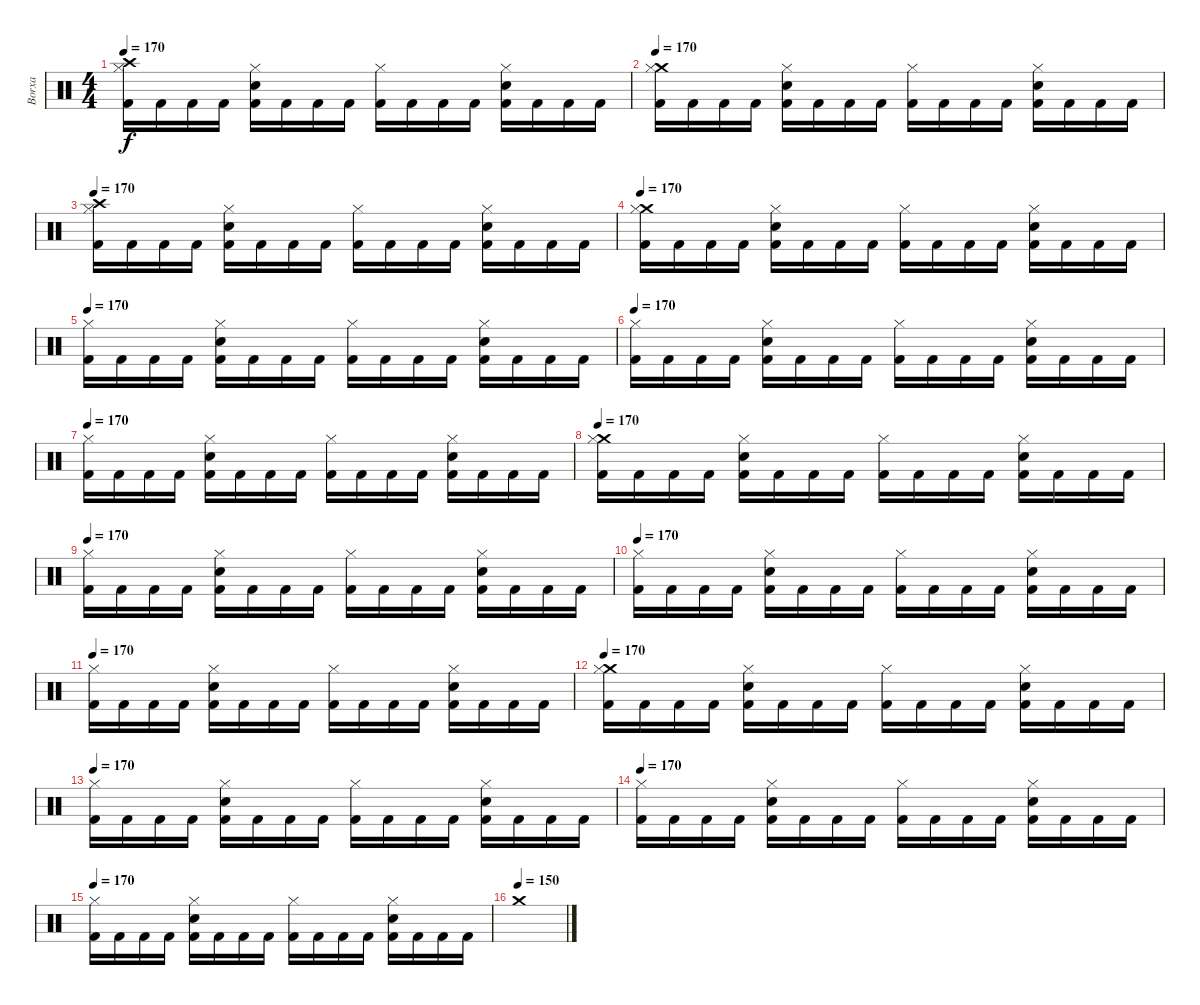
\track ("Borxa" "Borxa") {instrument percussion}
\staff {score}
\articulation defaults
\ts (4 4)
\tempo 170
\clef neutral
\ks c
("Crash high (hit)" "Hi-Hat (closed)" "Kick (hit) 2").16{dy f volume 13} "Kick (hit) 2".16 "Kick (hit) 2".16 "Kick (hit) 2".16 ("Snare (hit) 2" "Hi-Hat (closed)" "Kick (hit) 2").16 "Kick (hit) 2".16 "Kick (hit) 2".16 "Kick (hit) 2".16 ("Hi-Hat (closed)" "Kick (hit) 2").16 "Kick (hit) 2".16 "Kick (hit) 2".16 "Kick (hit) 2".16 ("Snare (hit) 2" "Hi-Hat (closed)" "Kick (hit) 2").16 "Kick (hit) 2".16 "Kick (hit) 2".16 "Kick (hit) 2".16 |
\tempo 170
("Crash medium (hit)" "Hi-Hat (closed)" "Kick (hit) 2").16{volume 13} "Kick (hit) 2".16 "Kick (hit) 2".16 "Kick (hit) 2".16 ("Snare (hit) 2" "Hi-Hat (closed)" "Kick (hit) 2").16 "Kick (hit) 2".16 "Kick (hit) 2".16 "Kick (hit) 2".16 ("Hi-Hat (closed)" "Kick (hit) 2").16 "Kick (hit) 2".16 "Kick (hit) 2".16 "Kick (hit) 2".16 ("Snare (hit) 2" "Hi-Hat (closed)" "Kick (hit) 2").16 "Kick (hit) 2".16 "Kick (hit) 2".16 "Kick (hit) 2".16 |
\tempo 170
("Crash high (hit)" "Hi-Hat (closed)" "Kick (hit) 2").16{volume 13} "Kick (hit) 2".16 "Kick (hit) 2".16 "Kick (hit) 2".16 ("Snare (hit) 2" "Hi-Hat (closed)" "Kick (hit) 2").16 "Kick (hit) 2".16 "Kick (hit) 2".16 "Kick (hit) 2".16 ("Hi-Hat (closed)" "Kick (hit) 2").16 "Kick (hit) 2".16 "Kick (hit) 2".16 "Kick (hit) 2".16 ("Snare (hit) 2" "Hi-Hat (closed)" "Kick (hit) 2").16 "Kick (hit) 2".16 "Kick (hit) 2".16 "Kick (hit) 2".16 |
\tempo 170
("Crash medium (hit)" "Hi-Hat (closed)" "Kick (hit) 2").16{volume 13} "Kick (hit) 2".16 "Kick (hit) 2".16 "Kick (hit) 2".16 ("Snare (hit) 2" "Hi-Hat (closed)" "Kick (hit) 2").16 "Kick (hit) 2".16 "Kick (hit) 2".16 "Kick (hit) 2".16 ("Hi-Hat (closed)" "Kick (hit) 2").16 "Kick (hit) 2".16 "Kick (hit) 2".16 "Kick (hit) 2".16 ("Snare (hit) 2" "Hi-Hat (closed)" "Kick (hit) 2").16 "Kick (hit) 2".16 "Kick (hit) 2".16 "Kick (hit) 2".16 |
\tempo 170
("Hi-Hat (closed)" "Kick (hit) 2").16{volume 13} "Kick (hit) 2".16 "Kick (hit) 2".16 "Kick (hit) 2".16 ("Snare (hit) 2" "Hi-Hat (closed)" "Kick (hit) 2").16 "Kick (hit) 2".16 "Kick (hit) 2".16 "Kick (hit) 2".16 ("Hi-Hat (closed)" "Kick (hit) 2").16 "Kick (hit) 2".16 "Kick (hit) 2".16 "Kick (hit) 2".16 ("Snare (hit) 2" "Hi-Hat (closed)" "Kick (hit) 2").16 "Kick (hit) 2".16 "Kick (hit) 2".16 "Kick (hit) 2".16 |
\tempo 170
("Hi-Hat (closed)" "Kick (hit) 2").16{volume 13} "Kick (hit) 2".16 "Kick (hit) 2".16 "Kick (hit) 2".16 ("Snare (hit) 2" "Hi-Hat (closed)" "Kick (hit) 2").16 "Kick (hit) 2".16 "Kick (hit) 2".16 "Kick (hit) 2".16 ("Hi-Hat (closed)" "Kick (hit) 2").16 "Kick (hit) 2".16 "Kick (hit) 2".16 "Kick (hit) 2".16 ("Snare (hit) 2" "Hi-Hat (closed)" "Kick (hit) 2").16 "Kick (hit) 2".16 "Kick (hit) 2".16 "Kick (hit) 2".16 |
\tempo 170
("Hi-Hat (closed)" "Kick (hit) 2").16{volume 13} "Kick (hit) 2".16 "Kick (hit) 2".16 "Kick (hit) 2".16 ("Snare (hit) 2" "Hi-Hat (closed)" "Kick (hit) 2").16 "Kick (hit) 2".16 "Kick (hit) 2".16 "Kick (hit) 2".16 ("Hi-Hat (closed)" "Kick (hit) 2").16 "Kick (hit) 2".16 "Kick (hit) 2".16 "Kick (hit) 2".16 ("Snare (hit) 2" "Hi-Hat (closed)" "Kick (hit) 2").16 "Kick (hit) 2".16 "Kick (hit) 2".16 "Kick (hit) 2".16 |
\tempo 170
("Crash medium (hit)" "Hi-Hat (closed)" "Kick (hit) 2").16{volume 13} "Kick (hit) 2".16 "Kick (hit) 2".16 "Kick (hit) 2".16 ("Snare (hit) 2" "Hi-Hat (closed)" "Kick (hit) 2").16 "Kick (hit) 2".16 "Kick (hit) 2".16 "Kick (hit) 2".16 ("Hi-Hat (closed)" "Kick (hit) 2").16 "Kick (hit) 2".16 "Kick (hit) 2".16 "Kick (hit) 2".16 ("Snare (hit) 2" "Hi-Hat (closed)" "Kick (hit) 2").16 "Kick (hit) 2".16 "Kick (hit) 2".16 "Kick (hit) 2".16 |
\tempo 170
("Hi-Hat (closed)" "Kick (hit) 2").16{volume 13} "Kick (hit) 2".16 "Kick (hit) 2".16 "Kick (hit) 2".16 ("Snare (hit) 2" "Hi-Hat (closed)" "Kick (hit) 2").16 "Kick (hit) 2".16 "Kick (hit) 2".16 "Kick (hit) 2".16 ("Hi-Hat (closed)" "Kick (hit) 2").16 "Kick (hit) 2".16 "Kick (hit) 2".16 "Kick (hit) 2".16 ("Snare (hit) 2" "Hi-Hat (closed)" "Kick (hit) 2").16 "Kick (hit) 2".16 "Kick (hit) 2".16 "Kick (hit) 2".16 |
\tempo 170
("Hi-Hat (closed)" "Kick (hit) 2").16{volume 13} "Kick (hit) 2".16 "Kick (hit) 2".16 "Kick (hit) 2".16 ("Snare (hit) 2" "Hi-Hat (closed)" "Kick (hit) 2").16 "Kick (hit) 2".16 "Kick (hit) 2".16 "Kick (hit) 2".16 ("Hi-Hat (closed)" "Kick (hit) 2").16 "Kick (hit) 2".16 "Kick (hit) 2".16 "Kick (hit) 2".16 ("Snare (hit) 2" "Hi-Hat (closed)" "Kick (hit) 2").16 "Kick (hit) 2".16 "Kick (hit) 2".16 "Kick (hit) 2".16 |
\tempo 170
("Hi-Hat (closed)" "Kick (hit) 2").16{volume 13} "Kick (hit) 2".16 "Kick (hit) 2".16 "Kick (hit) 2".16 ("Snare (hit) 2" "Hi-Hat (closed)" "Kick (hit) 2").16 "Kick (hit) 2".16 "Kick (hit) 2".16 "Kick (hit) 2".16 ("Hi-Hat (closed)" "Kick (hit) 2").16 "Kick (hit) 2".16 "Kick (hit) 2".16 "Kick (hit) 2".16 ("Snare (hit) 2" "Hi-Hat (closed)" "Kick (hit) 2").16 "Kick (hit) 2".16 "Kick (hit) 2".16 "Kick (hit) 2".16 |
\tempo 170
("Crash medium (hit)" "Hi-Hat (closed)" "Kick (hit) 2").16{volume 13} "Kick (hit) 2".16 "Kick (hit) 2".16 "Kick (hit) 2".16 ("Snare (hit) 2" "Hi-Hat (closed)" "Kick (hit) 2").16 "Kick (hit) 2".16 "Kick (hit) 2".16 "Kick (hit) 2".16 ("Hi-Hat (closed)" "Kick (hit) 2").16 "Kick (hit) 2".16 "Kick (hit) 2".16 "Kick (hit) 2".16 ("Snare (hit) 2" "Hi-Hat (closed)" "Kick (hit) 2").16 "Kick (hit) 2".16 "Kick (hit) 2".16 "Kick (hit) 2".16 |
\tempo 170
("Hi-Hat (closed)" "Kick (hit) 2").16{volume 13} "Kick (hit) 2".16 "Kick (hit) 2".16 "Kick (hit) 2".16 ("Snare (hit) 2" "Hi-Hat (closed)" "Kick (hit) 2").16 "Kick (hit) 2".16 "Kick (hit) 2".16 "Kick (hit) 2".16 ("Hi-Hat (closed)" "Kick (hit) 2").16 "Kick (hit) 2".16 "Kick (hit) 2".16 "Kick (hit) 2".16 ("Snare (hit) 2" "Hi-Hat (closed)" "Kick (hit) 2").16 "Kick (hit) 2".16 "Kick (hit) 2".16 "Kick (hit) 2".16 |
\tempo 170
("Hi-Hat (closed)" "Kick (hit) 2").16{volume 13} "Kick (hit) 2".16 "Kick (hit) 2".16 "Kick (hit) 2".16 ("Snare (hit) 2" "Hi-Hat (closed)" "Kick (hit) 2").16 "Kick (hit) 2".16 "Kick (hit) 2".16 "Kick (hit) 2".16 ("Hi-Hat (closed)" "Kick (hit) 2").16 "Kick (hit) 2".16 "Kick (hit) 2".16 "Kick (hit) 2".16 ("Snare (hit) 2" "Hi-Hat (closed)" "Kick (hit) 2").16 "Kick (hit) 2".16 "Kick (hit) 2".16 "Kick (hit) 2".16 |
\tempo 170
("Hi-Hat (closed)" "Kick (hit) 2").16{volume 13} "Kick (hit) 2".16 "Kick (hit) 2".16 "Kick (hit) 2".16 ("Snare (hit) 2" "Hi-Hat (closed)" "Kick (hit) 2").16 "Kick (hit) 2".16 "Kick (hit) 2".16 "Kick (hit) 2".16 ("Hi-Hat (closed)" "Kick (hit) 2").16 "Kick (hit) 2".16 "Kick (hit) 2".16 "Kick (hit) 2".16 ("Snare (hit) 2" "Hi-Hat (closed)" "Kick (hit) 2").16 "Kick (hit) 2".16 "Kick (hit) 2".16 "Kick (hit) 2".16 |
\section ("" "")
\tempo (150)
"Crash medium (hit)".1
